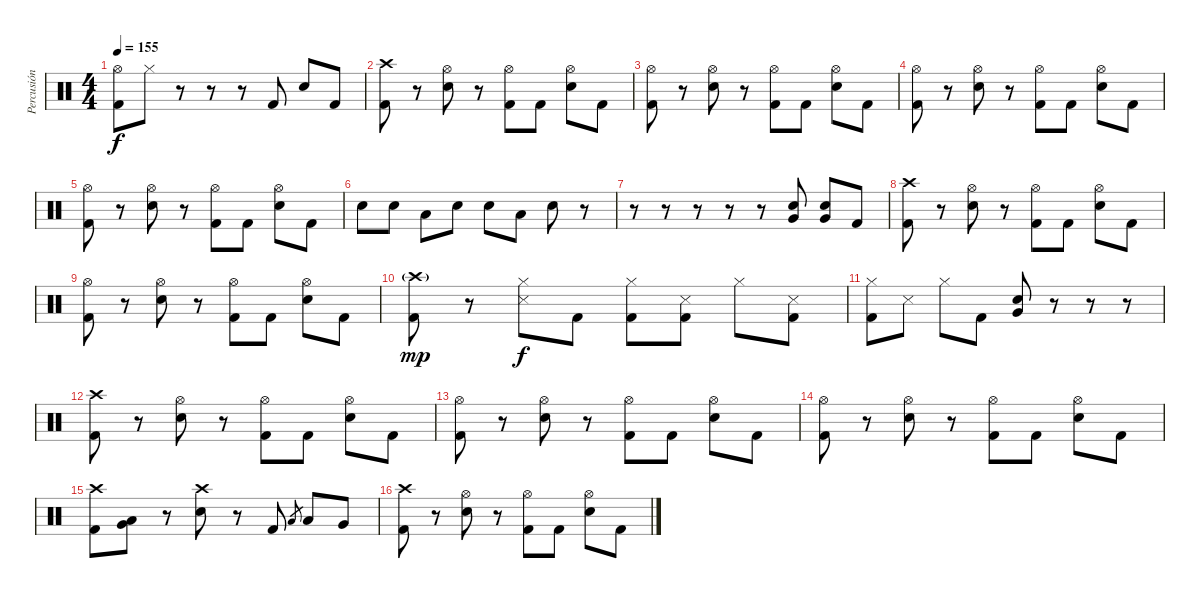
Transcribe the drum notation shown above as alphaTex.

\track ("Percusión" "Percusión") {instrument percussion}
\staff {score}
\articulation defaults
\ts (4 4)
\tempo 155
\clef neutral
\ks c
("Hi-Hat (open)" "Kick (hit) 2").8{dy f} "Hi-Hat (closed)".8 r.8 r.8 r.8 "Kick (hit) 2".8 "Electric Snare (hit)".8 "Kick (hit) 2".8 |
("Crash high (hit)" "Kick (hit) 2").8 r.8 ("Hi-Hat (open)" "Electric Snare (hit)").8 r.8 ("Hi-Hat (open)" "Kick (hit) 2").8 "Kick (hit) 2".8 ("Hi-Hat (open)" "Electric Snare (hit)").8 "Kick (hit) 2".8 |
("Hi-Hat (open)" "Kick (hit) 2").8 r.8 ("Hi-Hat (open)" "Electric Snare (hit)").8 r.8 ("Hi-Hat (open)" "Kick (hit) 2").8 "Kick (hit) 2".8 ("Hi-Hat (open)" "Electric Snare (hit)").8 "Kick (hit) 2".8 |
("Hi-Hat (open)" "Kick (hit) 2").8 r.8 ("Hi-Hat (open)" "Electric Snare (hit)").8 r.8 ("Hi-Hat (open)" "Kick (hit) 2").8 "Kick (hit) 2".8 ("Hi-Hat (open)" "Electric Snare (hit)").8 "Kick (hit) 2".8 |
("Hi-Hat (open)" "Kick (hit) 2").8 r.8 ("Hi-Hat (open)" "Electric Snare (hit)").8 r.8 ("Hi-Hat (open)" "Kick (hit) 2").8 "Kick (hit) 2".8 ("Hi-Hat (open)" "Electric Snare (hit)").8 "Kick (hit) 2".8 |
"Electric Snare (hit)".8 "Electric Snare (hit)".8 "Low Tom (hit)".8 "Electric Snare (hit)".8 "Electric Snare (hit)".8 "Low Tom (hit)".8 "Electric Snare (hit)".8 r.8 |
r.8 r.8 r.8 r.8 r.8 ("Very Low Tom (hit)" "Electric Snare (hit)").8 ("Very Low Tom (hit)" "Electric Snare (hit)").8 "Kick (hit) 2".8 |
("Crash high (hit)" "Kick (hit) 2").8 r.8 ("Hi-Hat (open)" "Electric Snare (hit)").8 r.8 ("Hi-Hat (open)" "Kick (hit) 2").8 "Kick (hit) 2".8 ("Hi-Hat (open)" "Electric Snare (hit)").8 "Kick (hit) 2".8 |
("Hi-Hat (open)" "Kick (hit) 2").8 r.8 ("Hi-Hat (open)" "Electric Snare (hit)").8 r.8 ("Hi-Hat (open)" "Kick (hit) 2").8 "Kick (hit) 2".8 ("Hi-Hat (open)" "Electric Snare (hit)").8 "Kick (hit) 2".8 |
("Crash high (hit)"{g} "Kick (hit) 2").8{dy mp} r.8 ("Hi-Hat (closed)" "Snare (side stick) 3").8{dy f} "Kick (hit) 2".8 ("Hi-Hat (closed)" "Kick (hit) 2").8 ("Snare (side stick) 3" "Kick (hit) 2").8 "Hi-Hat (closed)".8 ("Snare (side stick) 3" "Kick (hit) 2").8 |
("Hi-Hat (closed)" "Kick (hit) 2").8 "Snare (side stick) 3".8 "Hi-Hat (closed)".8 "Kick (hit) 2".8 ("Electric Snare (hit)" "Very Low Tom (hit)").8 r.8 r.8 r.8 |
("Crash high (hit)" "Kick (hit) 2").8 r.8 ("Hi-Hat (open)" "Electric Snare (hit)").8 r.8 ("Hi-Hat (open)" "Kick (hit) 2").8 "Kick (hit) 2".8 ("Hi-Hat (open)" "Electric Snare (hit)").8 "Kick (hit) 2".8 |
("Hi-Hat (open)" "Kick (hit) 2").8 r.8 ("Hi-Hat (open)" "Electric Snare (hit)").8 r.8 ("Hi-Hat (open)" "Kick (hit) 2").8 "Kick (hit) 2".8 ("Hi-Hat (open)" "Electric Snare (hit)").8 "Kick (hit) 2".8 |
("Hi-Hat (open)" "Kick (hit) 2").8 r.8 ("Hi-Hat (open)" "Electric Snare (hit)").8 r.8 ("Hi-Hat (open)" "Kick (hit) 2").8 "Kick (hit) 2".8 ("Hi-Hat (open)" "Electric Snare (hit)").8 "Kick (hit) 2".8 |
("Crash high (hit)" "Kick (hit) 2").8 ("Very Low Tom (hit)" "Low Tom (hit)").8 r.8 ("Crash high (hit)" "Electric Snare (hit)").8 r.8 "Kick (hit) 2".8 "Low Tom (hit)".8{gr} "Low Tom (hit)".8 "Very Low Tom (hit)".8 |
("Crash high (hit)" "Kick (hit) 2").8 r.8 ("Hi-Hat (open)" "Electric Snare (hit)").8 r.8 ("Hi-Hat (open)" "Kick (hit) 2").8 "Kick (hit) 2".8 ("Hi-Hat (open)" "Electric Snare (hit)").8 "Kick (hit) 2".8
